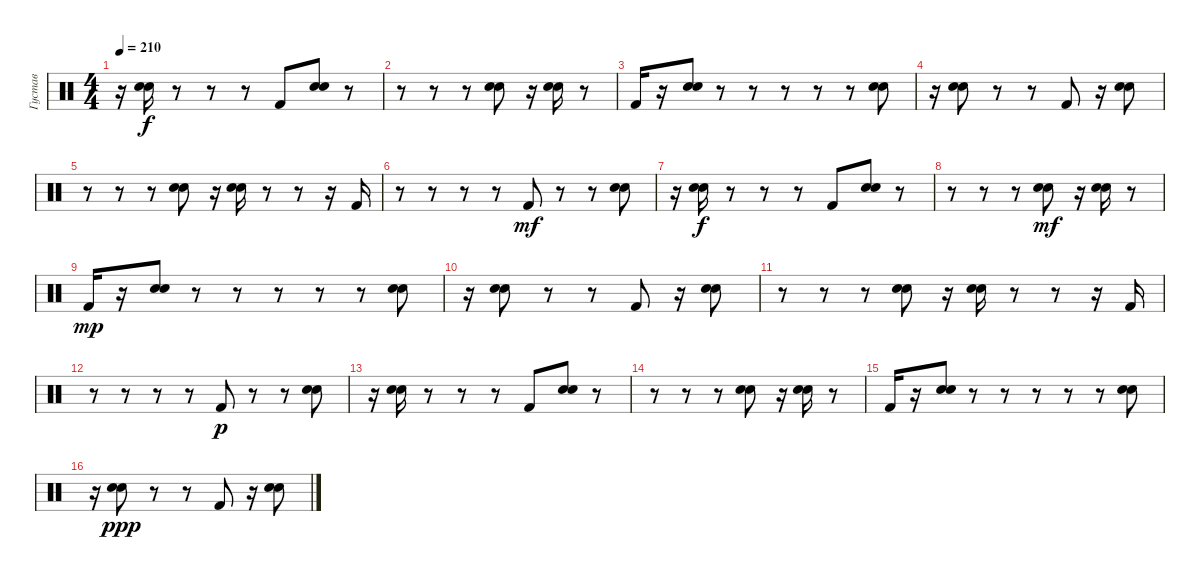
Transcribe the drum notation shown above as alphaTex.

\track ("Густав" "Густав") {instrument percussion}
\staff {score}
\articulation defaults
\ts (4 4)
\tempo 210
\clef neutral
\ks c
r.16{dy f} ("Snare (hit) 2" "Electric Snare (hit)").16 r.8 r.8 r.8 "Kick (hit) 2".8 ("Snare (hit) 2" "Electric Snare (hit)").8 r.8 |
r.8 r.8 r.8 ("Snare (hit) 2" "Electric Snare (hit)").8 r.16 ("Snare (hit) 2" "Electric Snare (hit)").16 r.8 |
"Kick (hit) 2".16 r.16 ("Snare (hit) 2" "Electric Snare (hit)").8 r.8 r.8 r.8 r.8 r.8 ("Snare (hit) 2" "Electric Snare (hit)").8 |
r.16 ("Snare (hit) 2" "Electric Snare (hit)").8 r.8 r.8 "Kick (hit) 2".8 r.16 ("Snare (hit) 2" "Electric Snare (hit)").8 |
r.8 r.8 r.8 ("Snare (hit) 2" "Electric Snare (hit)").8 r.16 ("Snare (hit) 2" "Electric Snare (hit)").16 r.8 r.8 r.16 "Kick (hit) 2".16 |
r.8 r.8 r.8 r.8 "Kick (hit) 2".8{dy mf} r.8 r.8 ("Snare (hit) 2" "Electric Snare (hit)").8 |
r.16 ("Snare (hit) 2" "Electric Snare (hit)").16{dy f} r.8 r.8 r.8 "Kick (hit) 2".8 ("Snare (hit) 2" "Electric Snare (hit)").8 r.8 |
r.8 r.8 r.8 ("Snare (hit) 2" "Electric Snare (hit)").8{dy mf} r.16 ("Snare (hit) 2" "Electric Snare (hit)").16 r.8 |
"Kick (hit) 2".16{dy mp} r.16 ("Snare (hit) 2" "Electric Snare (hit)").8 r.8 r.8 r.8 r.8 r.8 ("Snare (hit) 2" "Electric Snare (hit)").8 |
r.16 ("Snare (hit) 2" "Electric Snare (hit)").8 r.8 r.8 "Kick (hit) 2".8 r.16 ("Snare (hit) 2" "Electric Snare (hit)").8 |
r.8 r.8 r.8 ("Snare (hit) 2" "Electric Snare (hit)").8 r.16 ("Snare (hit) 2" "Electric Snare (hit)").16 r.8 r.8 r.16 "Kick (hit) 2".16 |
r.8 r.8 r.8 r.8 "Kick (hit) 2".8{dy p} r.8 r.8 ("Snare (hit) 2" "Electric Snare (hit)").8 |
r.16 ("Snare (hit) 2" "Electric Snare (hit)").16 r.8 r.8 r.8 "Kick (hit) 2".8 ("Snare (hit) 2" "Electric Snare (hit)").8 r.8 |
r.8 r.8 r.8 ("Snare (hit) 2" "Electric Snare (hit)").8 r.16 ("Snare (hit) 2" "Electric Snare (hit)").16 r.8 |
"Kick (hit) 2".16 r.16 ("Snare (hit) 2" "Electric Snare (hit)").8 r.8 r.8 r.8 r.8 r.8 ("Snare (hit) 2" "Electric Snare (hit)").8 |
r.16 ("Snare (hit) 2" "Electric Snare (hit)").8{dy ppp} r.8 r.8 "Kick (hit) 2".8 r.16 ("Snare (hit) 2" "Electric Snare (hit)").8
